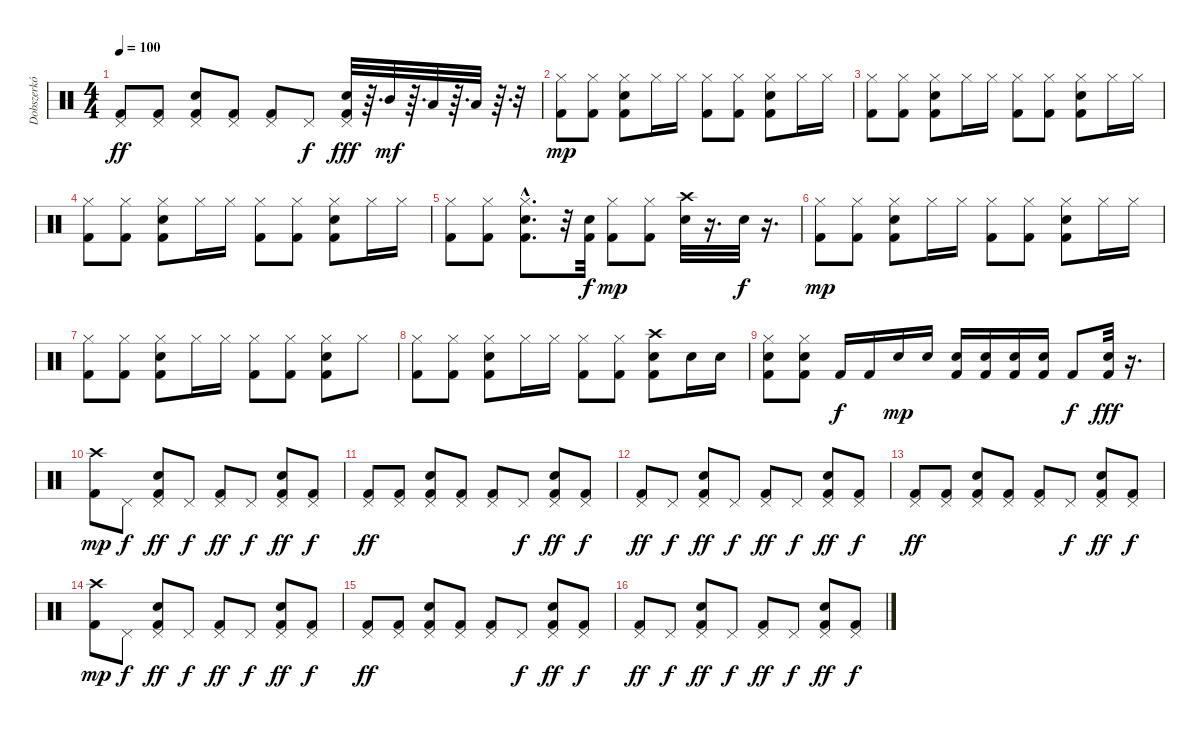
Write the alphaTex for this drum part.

\track ("Dobszerkó" "Dobszerkó") {instrument percussion}
\staff {score}
\articulation defaults
\ts (4 4)
\tempo 100
\clef neutral
\ks c
("Kick (hit) 2" "Pedal Hi-Hat (hit)").8{dy ff} ("Kick (hit) 2" "Pedal Hi-Hat (hit)").8 ("Electric Snare (hit)" "Kick (hit) 2" "Pedal Hi-Hat (hit)").8 ("Kick (hit) 2" "Pedal Hi-Hat (hit)").8 ("Kick (hit) 2" "Pedal Hi-Hat (hit)").8 "Pedal Hi-Hat (hit)".8{dy f} ("Electric Snare (hit)" "Kick (hit) 2" "Pedal Hi-Hat (hit)").32{dy fff} r.64{d} "Mid Tom (hit)".32{dy mf} r.64{d} "Low Floor Tom (hit)".32 r.64{d} "Low Floor Tom (hit)".32 r.64{d} r.32 |
("Kick (hit) 2" "Hi-Hat (closed)").8{dy mp} ("Kick (hit) 2" "Hi-Hat (closed)").8 ("Electric Snare (hit)" "Kick (hit) 2" "Hi-Hat (closed)").8 "Hi-Hat (closed)".16 "Hi-Hat (closed)".16 ("Kick (hit) 2" "Hi-Hat (closed)").8 ("Kick (hit) 2" "Hi-Hat (closed)").8 ("Electric Snare (hit)" "Kick (hit) 2" "Hi-Hat (closed)").8 "Hi-Hat (closed)".16 "Hi-Hat (closed)".16 |
("Kick (hit) 2" "Hi-Hat (closed)").8 ("Kick (hit) 2" "Hi-Hat (closed)").8 ("Electric Snare (hit)" "Kick (hit) 2" "Hi-Hat (closed)").8 "Hi-Hat (closed)".16 "Hi-Hat (closed)".16 ("Kick (hit) 2" "Hi-Hat (closed)").8 ("Kick (hit) 2" "Hi-Hat (closed)").8 ("Electric Snare (hit)" "Kick (hit) 2" "Hi-Hat (closed)").8 "Hi-Hat (closed)".16 "Hi-Hat (closed)".16 |
("Kick (hit) 2" "Hi-Hat (closed)").8 ("Kick (hit) 2" "Hi-Hat (closed)").8 ("Electric Snare (hit)" "Kick (hit) 2" "Hi-Hat (closed)").8 "Hi-Hat (closed)".16 "Hi-Hat (closed)".16 ("Kick (hit) 2" "Hi-Hat (closed)").8 ("Kick (hit) 2" "Hi-Hat (closed)").8 ("Electric Snare (hit)" "Kick (hit) 2" "Hi-Hat (closed)").8 "Hi-Hat (closed)".16 "Hi-Hat (closed)".16 |
("Kick (hit) 2" "Hi-Hat (closed)").8 ("Kick (hit) 2" "Hi-Hat (closed)").8 ("Electric Snare (hit)"{hac} "Kick (hit) 2"{hac} "Hi-Hat (closed)"{hac}).8{d} r.32 ("Electric Snare (hit)" "Kick (hit) 2").32{dy f} ("Kick (hit) 2" "Hi-Hat (closed)").8{dy mp} ("Kick (hit) 2" "Hi-Hat (closed)").8 ("Electric Snare (hit)"{tr (40 64)} "Crash high (hit)").32 r.16{d} "Snare (hit) 2"{tr (38 64)}.32{dy f} r.16{d} |
("Kick (hit) 2" "Hi-Hat (closed)").8{dy mp} ("Kick (hit) 2" "Hi-Hat (closed)").8 ("Electric Snare (hit)" "Kick (hit) 2" "Hi-Hat (closed)").8 "Hi-Hat (closed)".16 "Hi-Hat (closed)".16 ("Kick (hit) 2" "Hi-Hat (closed)").8 ("Kick (hit) 2" "Hi-Hat (closed)").8 ("Electric Snare (hit)" "Kick (hit) 2" "Hi-Hat (closed)").8 "Hi-Hat (closed)".16 "Hi-Hat (closed)".16 |
("Kick (hit) 2" "Hi-Hat (closed)").8 ("Kick (hit) 2" "Hi-Hat (closed)").8 ("Electric Snare (hit)" "Kick (hit) 2" "Hi-Hat (closed)").8 "Hi-Hat (closed)".16 "Hi-Hat (closed)".16 ("Kick (hit) 2" "Hi-Hat (closed)").8 ("Kick (hit) 2" "Hi-Hat (closed)").8 ("Electric Snare (hit)" "Kick (hit) 2" "Hi-Hat (closed)").8 "Hi-Hat (closed)".8 |
("Kick (hit) 2" "Hi-Hat (closed)").8 ("Kick (hit) 2" "Hi-Hat (closed)").8 ("Electric Snare (hit)" "Kick (hit) 2" "Hi-Hat (closed)").8 "Hi-Hat (closed)".16 "Hi-Hat (closed)".16 ("Kick (hit) 2" "Hi-Hat (closed)").8 ("Kick (hit) 2" "Hi-Hat (closed)").8 ("Electric Snare (hit)" "Kick (hit) 2" "Crash high (hit)").8 "Electric Snare (hit)".16 "Electric Snare (hit)".16 |
("Electric Snare (hit)" "Kick (hit) 2" "Hi-Hat (closed)").8 ("Electric Snare (hit)" "Kick (hit) 2" "Hi-Hat (closed)").8 "Kick (hit) 2".16{dy f} "Kick (hit) 2".16 "Electric Snare (hit)".16{dy mp} "Electric Snare (hit)".16 ("Electric Snare (hit)" "Kick (hit) 2").16 ("Electric Snare (hit)" "Kick (hit) 2").16 ("Snare (hit) 2" "Kick (hit) 2").16 ("Snare (hit) 2" "Kick (hit) 2").16 "Kick (hit) 2".8{dy f} ("Electric Snare (hit)"{tr (40 64)} "Kick (hit) 2").32{dy fff} r.16{d} |
("Kick (hit) 2" "Crash high (hit)").8{dy mp} "Pedal Hi-Hat (hit)".8{dy f} ("Electric Snare (hit)" "Kick (hit) 2" "Pedal Hi-Hat (hit)").8{dy ff} "Pedal Hi-Hat (hit)".8{dy f} ("Kick (hit) 2" "Pedal Hi-Hat (hit)").8{dy ff} "Pedal Hi-Hat (hit)".8{dy f} ("Electric Snare (hit)" "Kick (hit) 2" "Pedal Hi-Hat (hit)").8{dy ff} ("Kick (hit) 2" "Pedal Hi-Hat (hit)").8{dy f} |
("Kick (hit) 2" "Pedal Hi-Hat (hit)").8{dy ff} ("Kick (hit) 2" "Pedal Hi-Hat (hit)").8 ("Electric Snare (hit)" "Kick (hit) 2" "Pedal Hi-Hat (hit)").8 ("Kick (hit) 2" "Pedal Hi-Hat (hit)").8 ("Kick (hit) 2" "Pedal Hi-Hat (hit)").8 "Pedal Hi-Hat (hit)".8{dy f} ("Electric Snare (hit)" "Kick (hit) 2" "Pedal Hi-Hat (hit)").8{dy ff} ("Kick (hit) 2" "Pedal Hi-Hat (hit)").8{dy f} |
("Kick (hit) 2" "Pedal Hi-Hat (hit)").8{dy ff} "Pedal Hi-Hat (hit)".8{dy f} ("Electric Snare (hit)" "Kick (hit) 2" "Pedal Hi-Hat (hit)").8{dy ff} "Pedal Hi-Hat (hit)".8{dy f} ("Kick (hit) 2" "Pedal Hi-Hat (hit)").8{dy ff} "Pedal Hi-Hat (hit)".8{dy f} ("Electric Snare (hit)" "Kick (hit) 2" "Pedal Hi-Hat (hit)").8{dy ff} ("Kick (hit) 2" "Pedal Hi-Hat (hit)").8{dy f} |
("Kick (hit) 2" "Pedal Hi-Hat (hit)").8{dy ff} ("Kick (hit) 2" "Pedal Hi-Hat (hit)").8 ("Electric Snare (hit)" "Kick (hit) 2" "Pedal Hi-Hat (hit)").8 ("Kick (hit) 2" "Pedal Hi-Hat (hit)").8 ("Kick (hit) 2" "Pedal Hi-Hat (hit)").8 "Pedal Hi-Hat (hit)".8{dy f} ("Electric Snare (hit)" "Kick (hit) 2" "Pedal Hi-Hat (hit)").8{dy ff} ("Kick (hit) 2" "Pedal Hi-Hat (hit)").8{dy f} |
("Kick (hit) 2" "Crash high (hit)").8{dy mp} "Pedal Hi-Hat (hit)".8{dy f} ("Electric Snare (hit)" "Kick (hit) 2" "Pedal Hi-Hat (hit)").8{dy ff} "Pedal Hi-Hat (hit)".8{dy f} ("Kick (hit) 2" "Pedal Hi-Hat (hit)").8{dy ff} "Pedal Hi-Hat (hit)".8{dy f} ("Electric Snare (hit)" "Kick (hit) 2" "Pedal Hi-Hat (hit)").8{dy ff} ("Kick (hit) 2" "Pedal Hi-Hat (hit)").8{dy f} |
("Kick (hit) 2" "Pedal Hi-Hat (hit)").8{dy ff} ("Kick (hit) 2" "Pedal Hi-Hat (hit)").8 ("Electric Snare (hit)" "Kick (hit) 2" "Pedal Hi-Hat (hit)").8 ("Kick (hit) 2" "Pedal Hi-Hat (hit)").8 ("Kick (hit) 2" "Pedal Hi-Hat (hit)").8 "Pedal Hi-Hat (hit)".8{dy f} ("Electric Snare (hit)" "Kick (hit) 2" "Pedal Hi-Hat (hit)").8{dy ff} ("Kick (hit) 2" "Pedal Hi-Hat (hit)").8{dy f} |
("Kick (hit) 2" "Pedal Hi-Hat (hit)").8{dy ff} "Pedal Hi-Hat (hit)".8{dy f} ("Electric Snare (hit)" "Kick (hit) 2" "Pedal Hi-Hat (hit)").8{dy ff} "Pedal Hi-Hat (hit)".8{dy f} ("Kick (hit) 2" "Pedal Hi-Hat (hit)").8{dy ff} "Pedal Hi-Hat (hit)".8{dy f} ("Electric Snare (hit)" "Kick (hit) 2" "Pedal Hi-Hat (hit)").8{dy ff} ("Kick (hit) 2" "Pedal Hi-Hat (hit)").8{dy f}
